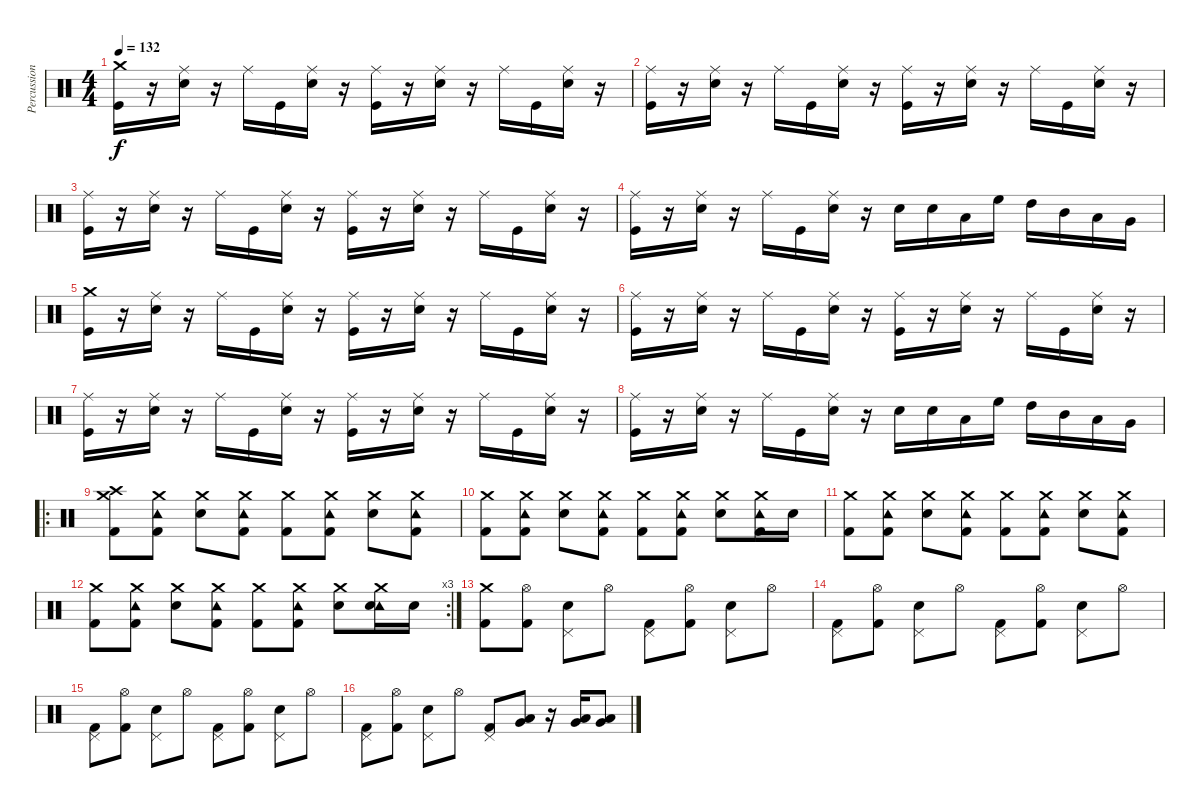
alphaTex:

\track ("Percussion" "Percussion") {instrument percussion}
\staff {score}
\articulation defaults
\ts (4 4)
\tempo 132
\clef neutral
\ks c
("Crash medium (hit)" "Kick (hit)").16{dy f} r.16 ("Ride (middle)" "Electric Snare (hit)").16 r.16 "Ride (middle)".16 "Kick (hit)".16 ("Ride (middle)" "Electric Snare (hit)").16 r.16 ("Ride (middle)" "Kick (hit)").16 r.16 ("Ride (middle)" "Electric Snare (hit)").16 r.16 "Ride (middle)".16 "Kick (hit)".16 ("Ride (middle)" "Electric Snare (hit)").16 r.16 |
("Ride (middle)" "Kick (hit)").16 r.16 ("Ride (middle)" "Electric Snare (hit)").16 r.16 "Ride (middle)".16 "Kick (hit)".16 ("Ride (middle)" "Electric Snare (hit)").16 r.16 ("Ride (middle)" "Kick (hit)").16 r.16 ("Ride (middle)" "Electric Snare (hit)").16 r.16 "Ride (middle)".16 "Kick (hit)".16 ("Ride (middle)" "Electric Snare (hit)").16 r.16 |
("Ride (middle)" "Kick (hit)").16 r.16 ("Ride (middle)" "Electric Snare (hit)").16 r.16 "Ride (middle)".16 "Kick (hit)".16 ("Ride (middle)" "Electric Snare (hit)").16 r.16 ("Ride (middle)" "Kick (hit)").16 r.16 ("Ride (middle)" "Electric Snare (hit)").16 r.16 "Ride (middle)".16 "Kick (hit)".16 ("Ride (middle)" "Electric Snare (hit)").16 r.16 |
("Ride (middle)" "Kick (hit)").16 r.16 ("Ride (middle)" "Electric Snare (hit)").16 r.16 "Ride (middle)".16 "Kick (hit)".16 ("Ride (middle)" "Electric Snare (hit)").16 r.16 "Electric Snare (hit)".16 "Electric Snare (hit)".16 "Low Floor Tom (hit)".16 "High Floor Tom (hit)".16 "High Tom (hit)".16 "Mid Tom (hit)".16 "Low Tom (hit)".16 "Very Low Tom (hit)".16 |
("Crash medium (hit)" "Kick (hit)").16 r.16 ("Ride (middle)" "Electric Snare (hit)").16 r.16 "Ride (middle)".16 "Kick (hit)".16 ("Ride (middle)" "Electric Snare (hit)").16 r.16 ("Ride (middle)" "Kick (hit)").16 r.16 ("Ride (middle)" "Electric Snare (hit)").16 r.16 "Ride (middle)".16 "Kick (hit)".16 ("Ride (middle)" "Electric Snare (hit)").16 r.16 |
("Ride (middle)" "Kick (hit)").16 r.16 ("Ride (middle)" "Electric Snare (hit)").16 r.16 "Ride (middle)".16 "Kick (hit)".16 ("Ride (middle)" "Electric Snare (hit)").16 r.16 ("Ride (middle)" "Kick (hit)").16 r.16 ("Ride (middle)" "Electric Snare (hit)").16 r.16 "Ride (middle)".16 "Kick (hit)".16 ("Ride (middle)" "Electric Snare (hit)").16 r.16 |
("Ride (middle)" "Kick (hit)").16 r.16 ("Ride (middle)" "Electric Snare (hit)").16 r.16 "Ride (middle)".16 "Kick (hit)".16 ("Ride (middle)" "Electric Snare (hit)").16 r.16 ("Ride (middle)" "Kick (hit)").16 r.16 ("Ride (middle)" "Electric Snare (hit)").16 r.16 "Ride (middle)".16 "Kick (hit)".16 ("Ride (middle)" "Electric Snare (hit)").16 r.16 |
("Ride (middle)" "Kick (hit)").16 r.16 ("Ride (middle)" "Electric Snare (hit)").16 r.16 "Ride (middle)".16 "Kick (hit)".16 ("Ride (middle)" "Electric Snare (hit)").16 r.16 "Electric Snare (hit)".16 "Electric Snare (hit)".16 "Low Floor Tom (hit)".16 "High Floor Tom (hit)".16 "High Tom (hit)".16 "Mid Tom (hit)".16 "Low Tom (hit)".16 "Very Low Tom (hit)".16 |
\ro
("Crash medium (hit)" "Crash high (hit)" "Kick (hit) 2").8 ("Crash medium (hit)" "Tambourine (hit)" "Kick (hit) 2").8 ("Crash medium (hit)" "Electric Snare (hit)").8 ("Crash medium (hit)" "Tambourine (hit)" "Kick (hit) 2").8 ("Crash medium (hit)" "Kick (hit) 2").8 ("Crash medium (hit)" "Tambourine (hit)" "Kick (hit) 2").8 ("Crash medium (hit)" "Electric Snare (hit)").8 ("Crash medium (hit)" "Tambourine (hit)" "Kick (hit) 2").8 |
("Crash medium (hit)" "Kick (hit) 2").8 ("Crash medium (hit)" "Tambourine (hit)" "Kick (hit) 2").8 ("Crash medium (hit)" "Electric Snare (hit)").8 ("Crash medium (hit)" "Tambourine (hit)" "Kick (hit) 2").8 ("Crash medium (hit)" "Kick (hit) 2").8 ("Crash medium (hit)" "Tambourine (hit)" "Kick (hit) 2").8 ("Crash medium (hit)" "Electric Snare (hit)").8 ("Crash medium (hit)" "Tambourine (hit)" "Kick (hit) 2").16 "Electric Snare (hit)".16 |
("Crash medium (hit)" "Kick (hit) 2").8 ("Crash medium (hit)" "Tambourine (hit)" "Kick (hit) 2").8 ("Crash medium (hit)" "Electric Snare (hit)").8 ("Crash medium (hit)" "Tambourine (hit)" "Kick (hit) 2").8 ("Crash medium (hit)" "Kick (hit) 2").8 ("Crash medium (hit)" "Tambourine (hit)" "Kick (hit) 2").8 ("Crash medium (hit)" "Electric Snare (hit)").8 ("Crash medium (hit)" "Tambourine (hit)" "Kick (hit) 2").8 |
\rc 3
("Crash medium (hit)" "Kick (hit) 2").8 ("Crash medium (hit)" "Tambourine (hit)" "Kick (hit) 2").8 ("Crash medium (hit)" "Electric Snare (hit)").8 ("Crash medium (hit)" "Tambourine (hit)" "Kick (hit) 2").8 ("Crash medium (hit)" "Kick (hit) 2").8 ("Crash medium (hit)" "Tambourine (hit)" "Kick (hit) 2").8 ("Crash medium (hit)" "Electric Snare (hit)").8 ("Crash medium (hit)" "Tambourine (hit)" "Electric Snare (hit)").16 "Electric Snare (hit)".16 |
("Crash medium (hit)" "Kick (hit) 2").8 ("Hi-Hat (open)" "Kick (hit) 2").8 ("Pedal Hi-Hat (hit)" "Electric Snare (hit)").8 "Hi-Hat (open)".8 ("Pedal Hi-Hat (hit)" "Kick (hit) 2").8 ("Hi-Hat (open)" "Kick (hit) 2").8 ("Pedal Hi-Hat (hit)" "Electric Snare (hit)").8 "Hi-Hat (open)".8 |
("Pedal Hi-Hat (hit)" "Kick (hit) 2").8 ("Hi-Hat (open)" "Kick (hit) 2").8 ("Pedal Hi-Hat (hit)" "Electric Snare (hit)").8 "Hi-Hat (open)".8 ("Pedal Hi-Hat (hit)" "Kick (hit) 2").8 ("Hi-Hat (open)" "Kick (hit) 2").8 ("Pedal Hi-Hat (hit)" "Electric Snare (hit)").8 "Hi-Hat (open)".8 |
("Pedal Hi-Hat (hit)" "Kick (hit) 2").8 ("Hi-Hat (open)" "Kick (hit) 2").8 ("Pedal Hi-Hat (hit)" "Electric Snare (hit)").8 "Hi-Hat (open)".8 ("Pedal Hi-Hat (hit)" "Kick (hit) 2").8 ("Hi-Hat (open)" "Kick (hit) 2").8 ("Pedal Hi-Hat (hit)" "Electric Snare (hit)").8 "Hi-Hat (open)".8 |
("Pedal Hi-Hat (hit)" "Kick (hit) 2").8 ("Hi-Hat (open)" "Kick (hit) 2").8 ("Pedal Hi-Hat (hit)" "Electric Snare (hit)").8 "Hi-Hat (open)".8 ("Pedal Hi-Hat (hit)" "Kick (hit) 2").8 ("Low Tom (hit)" "Very Low Tom (hit)").8 r.16 ("Low Tom (hit)" "Very Low Tom (hit)").16 ("Low Tom (hit)" "Very Low Tom (hit)").8
